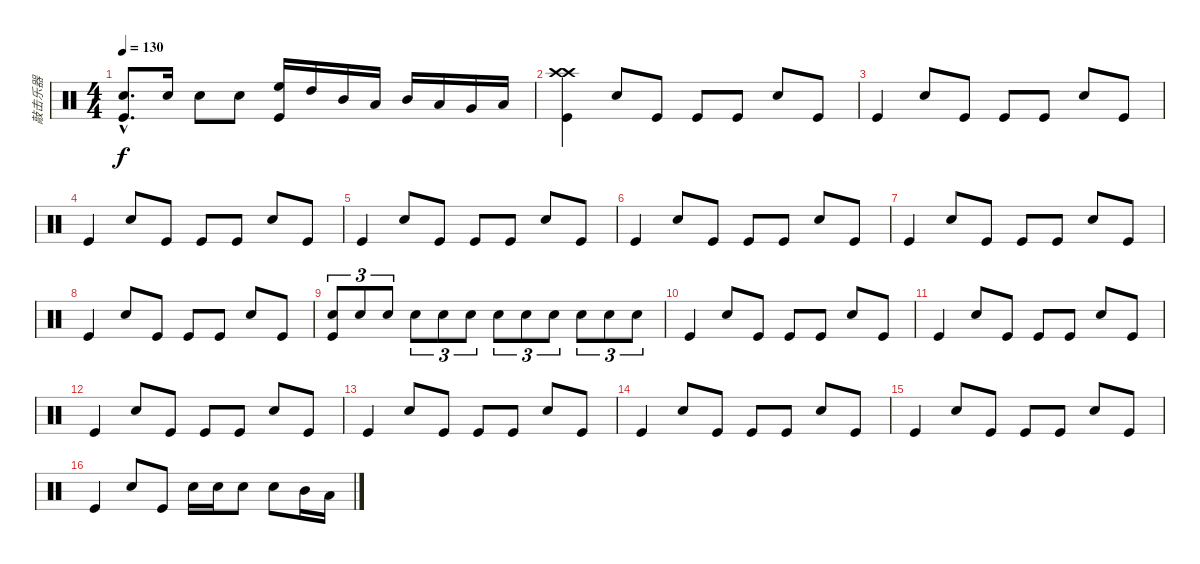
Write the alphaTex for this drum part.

\track ("敲击乐器" "敲击乐器") {instrument percussion}
\staff {score}
\articulation defaults
\ts (4 4)
\tempo 130
\clef neutral
\ks c
("Snare (hit) 2"{hac} "Kick (hit)"{hac}).8{d dy f} "Snare (hit) 2".16 "Snare (hit) 2".8 "Snare (hit) 2".8 ("High Floor Tom (hit)" "Kick (hit)").16 "High Tom (hit)".16 "Mid Tom (hit)".16 "Low Tom (hit)".16 "Mid Tom (hit)".16 "Low Tom (hit)".16 "Very Low Tom (hit)".16 "Low Floor Tom (hit)".16 |
("Crash high (hit)" "Crash high (hit)" "Kick (hit)").4 "Snare (hit) 2".8 "Kick (hit)".8 "Kick (hit)".8 "Kick (hit)".8 "Snare (hit) 2".8 "Kick (hit)".8 |
"Kick (hit)".4 "Snare (hit) 2".8 "Kick (hit)".8 "Kick (hit)".8 "Kick (hit)".8 "Snare (hit) 2".8 "Kick (hit)".8 |
"Kick (hit)".4 "Snare (hit) 2".8 "Kick (hit)".8 "Kick (hit)".8 "Kick (hit)".8 "Snare (hit) 2".8 "Kick (hit)".8 |
"Kick (hit)".4 "Snare (hit) 2".8 "Kick (hit)".8 "Kick (hit)".8 "Kick (hit)".8 "Snare (hit) 2".8 "Kick (hit)".8 |
"Kick (hit)".4 "Snare (hit) 2".8 "Kick (hit)".8 "Kick (hit)".8 "Kick (hit)".8 "Snare (hit) 2".8 "Kick (hit)".8 |
"Kick (hit)".4 "Snare (hit) 2".8 "Kick (hit)".8 "Kick (hit)".8 "Kick (hit)".8 "Snare (hit) 2".8 "Kick (hit)".8 |
"Kick (hit)".4 "Snare (hit) 2".8 "Kick (hit)".8 "Kick (hit)".8 "Kick (hit)".8 "Snare (hit) 2".8 "Kick (hit)".8 |
("Snare (hit) 2" "Kick (hit)").8{tu (3 2)} "Snare (hit) 2".8{tu (3 2)} "Snare (hit) 2".8{tu (3 2)} "Snare (hit) 2".8{tu (3 2)} "Snare (hit) 2".8{tu (3 2)} "Snare (hit) 2".8{tu (3 2)} "Snare (hit) 2".8{tu (3 2)} "Snare (hit) 2".8{tu (3 2)} "Snare (hit) 2".8{tu (3 2)} "Snare (hit) 2".8{tu (3 2)} "Snare (hit) 2".8{tu (3 2)} "Snare (hit) 2".8{tu (3 2)} |
"Kick (hit)".4 "Snare (hit) 2".8 "Kick (hit)".8 "Kick (hit)".8 "Kick (hit)".8 "Snare (hit) 2".8 "Kick (hit)".8 |
"Kick (hit)".4 "Snare (hit) 2".8 "Kick (hit)".8 "Kick (hit)".8 "Kick (hit)".8 "Snare (hit) 2".8 "Kick (hit)".8 |
"Kick (hit)".4 "Snare (hit) 2".8 "Kick (hit)".8 "Kick (hit)".8 "Kick (hit)".8 "Snare (hit) 2".8 "Kick (hit)".8 |
"Kick (hit)".4 "Snare (hit) 2".8 "Kick (hit)".8 "Kick (hit)".8 "Kick (hit)".8 "Snare (hit) 2".8 "Kick (hit)".8 |
"Kick (hit)".4 "Snare (hit) 2".8 "Kick (hit)".8 "Kick (hit)".8 "Kick (hit)".8 "Snare (hit) 2".8 "Kick (hit)".8 |
"Kick (hit)".4 "Snare (hit) 2".8 "Kick (hit)".8 "Kick (hit)".8 "Kick (hit)".8 "Snare (hit) 2".8 "Kick (hit)".8 |
"Kick (hit)".4 "Snare (hit) 2".8 "Kick (hit)".8 "Snare (hit) 2".16 "Snare (hit) 2".16 "Snare (hit) 2".8 "Snare (hit) 2".8 "Mid Tom (hit)".16 "Low Tom (hit)".16
